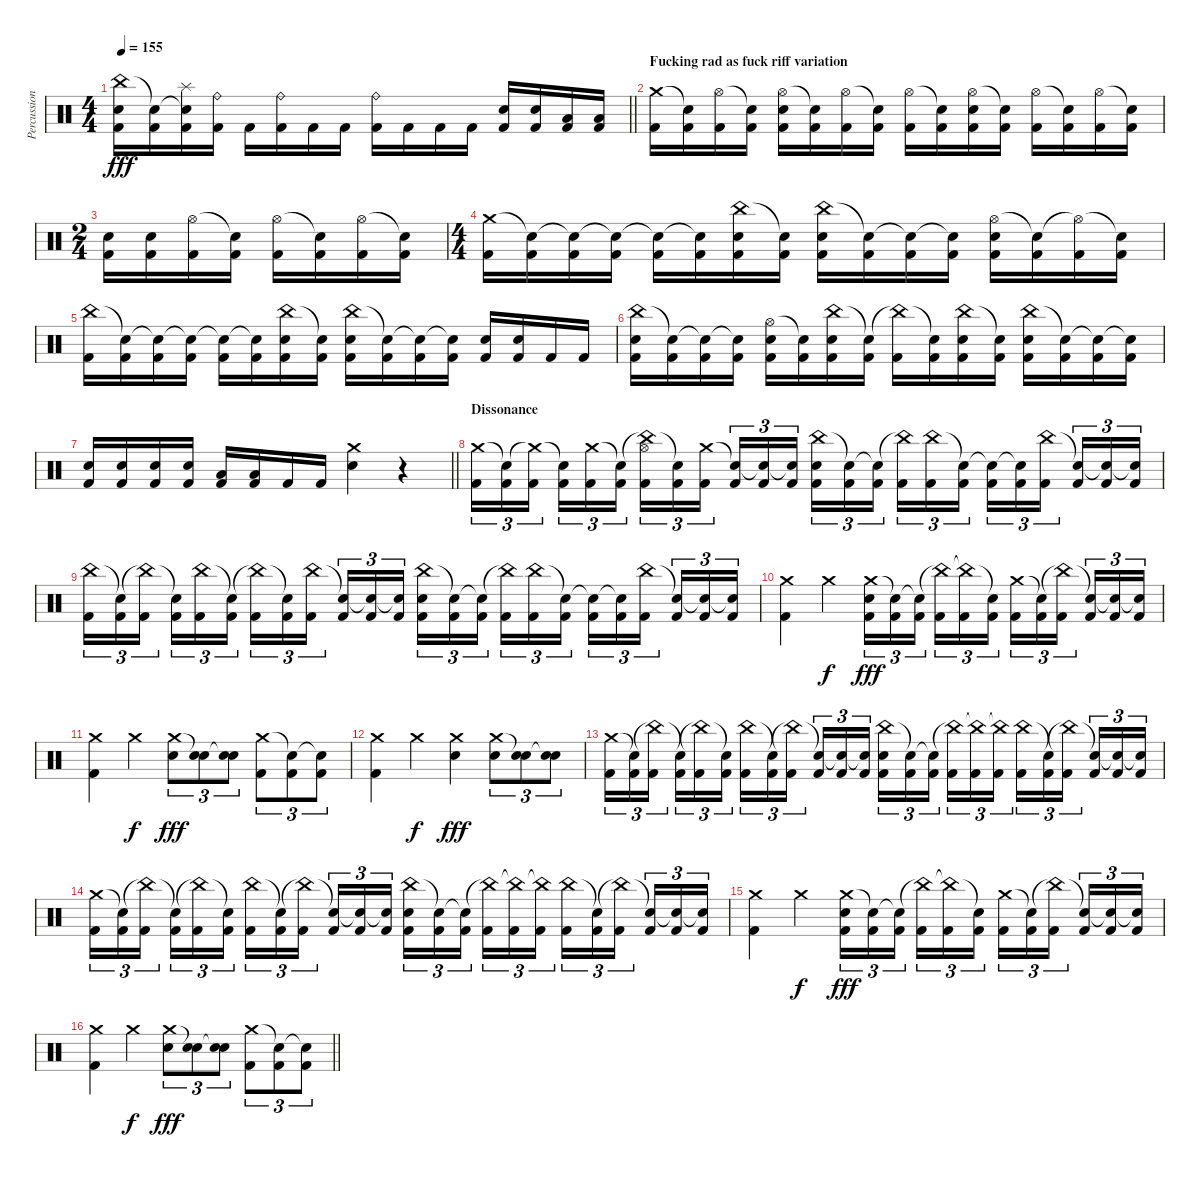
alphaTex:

\track ("Percussion" "Percussion") {instrument percussion}
\staff {score}
\articulation defaults
\ts (4 4)
\tempo 155
\clef neutral
\barLineRight lightlight
\ks c
("China (hit)" "Electric Snare (hit)" "Kick (hit) 2").16{dy fff} ("Snare (hit)"{t} "Kick (hit) 2").16 ("Snare (hit)"{t} "Splash (hit)" "Kick (hit) 2").16 ("Ride (bell)" "Kick (hit) 2").16 "Kick (hit) 2".16 ("Ride (bell)" "Kick (hit) 2").16 "Kick (hit) 2".16 "Kick (hit) 2".16 ("Ride (bell)" "Kick (hit) 2").16 "Kick (hit) 2".16 "Kick (hit) 2".16 "Kick (hit) 2".16 ("Electric Snare (hit)" "Kick (hit) 2").16 ("Electric Snare (hit)" "Kick (hit) 2").16 ("Low Tom (hit)" "Kick (hit) 2").16 ("Low Tom (hit)" "Kick (hit) 2").16 |
\section ("" "Fucking rad as fuck riff variation")
("Crash medium (hit)" "Kick (hit) 2").16 ("Snare (hit)"{t} "Kick (hit) 2").16 ("Hi-Hat (open)" "Kick (hit) 2").16 ("Snare (hit)"{t} "Kick (hit) 2").16 ("Hi-Hat (open)" "Electric Snare (hit)" "Kick (hit) 2").16 ("Snare (hit)"{t} "Kick (hit) 2").16 ("Hi-Hat (open)" "Kick (hit) 2").16 ("Snare (hit)"{t} "Kick (hit) 2").16 ("Hi-Hat (open)" "Kick (hit) 2").16 ("Snare (hit)"{t} "Kick (hit) 2").16 ("Hi-Hat (open)" "Electric Snare (hit)" "Kick (hit) 2").16 ("Snare (hit)"{t} "Kick (hit) 2").16 ("Hi-Hat (open)" "Kick (hit) 2").16 ("Snare (hit)"{t} "Kick (hit) 2").16 ("Hi-Hat (open)" "Kick (hit) 2").16 ("Snare (hit)"{t} "Kick (hit) 2").16 |
\ts (2 4)
("Electric Snare (hit)" "Kick (hit) 2").16 ("Electric Snare (hit)" "Kick (hit) 2").16 ("Hi-Hat (open)" "Kick (hit) 2").16 ("Snare (hit)"{t} "Kick (hit) 2").16 ("Hi-Hat (open)" "Kick (hit) 2").16 ("Snare (hit)"{t} "Kick (hit) 2").16 ("Hi-Hat (open)" "Kick (hit) 2").16 ("Snare (hit)"{t} "Kick (hit) 2").16 |
\ts (4 4)
("Crash medium (hit)" "Kick (hit) 2").16 ("Snare (hit)"{t} "Kick (hit) 2").16 ("Snare (hit)"{t} "Kick (hit) 2").16 ("Snare (hit)"{t} "Kick (hit) 2").16 ("Snare (hit)"{t} "Kick (hit) 2").16 ("Snare (hit)"{t} "Kick (hit) 2").16 ("China (hit)" "Electric Snare (hit)" "Kick (hit) 2").16 ("Snare (hit)"{t} "Kick (hit) 2").16 ("China (hit)" "Electric Snare (hit)" "Kick (hit) 2").16 ("Snare (hit)"{t} "Kick (hit) 2").16 ("Snare (hit)"{t} "Kick (hit) 2").16 ("Snare (hit)"{t} "Kick (hit) 2").16 ("Hi-Hat (open)" "Electric Snare (hit)" "Kick (hit) 2").16 ("Snare (hit)"{t} "Kick (hit) 2").16 ("Hi-Hat (open)"{t} "Kick (hit) 2").16 ("Snare (hit)"{t} "Kick (hit) 2").16 |
("China (hit)" "Kick (hit) 2").16 ("Snare (hit)"{t} "Kick (hit) 2").16 ("Snare (hit)"{t} "Kick (hit) 2").16 ("Snare (hit)"{t} "Kick (hit) 2").16 ("Snare (hit)"{t} "Kick (hit) 2").16 ("Snare (hit)"{t} "Kick (hit) 2").16 ("China (hit)" "Electric Snare (hit)" "Kick (hit) 2").16 ("Snare (hit)"{t} "Kick (hit) 2").16 ("China (hit)" "Electric Snare (hit)" "Kick (hit) 2").16 ("Snare (hit)"{t} "Kick (hit) 2").16 ("Snare (hit)"{t} "Kick (hit) 2").16 ("Snare (hit)"{t} "Kick (hit) 2").16 ("Electric Snare (hit)" "Kick (hit) 2").16 ("Electric Snare (hit)" "Kick (hit) 2").16 "Kick (hit) 2".16 "Kick (hit) 2".16 |
("China (hit)" "Electric Snare (hit)" "Kick (hit) 2").16 ("Snare (hit)"{t} "Kick (hit) 2").16 ("Snare (hit)"{t} "Kick (hit) 2").16 ("Snare (hit)"{t} "Kick (hit) 2").16 ("Hi-Hat (open)" "Electric Snare (hit)" "Kick (hit) 2").16 ("Snare (hit)"{t} "Kick (hit) 2").16 ("China (hit)" "Electric Snare (hit)" "Kick (hit) 2").16 ("Snare (hit)"{t} "Kick (hit) 2").16 ("China (hit)"{t} "Kick (hit) 2").16 ("Snare (hit)"{t} "Kick (hit) 2").16 ("China (hit)" "Electric Snare (hit)" "Kick (hit) 2").16 ("Snare (hit)"{t} "Kick (hit) 2").16 ("China (hit)" "Electric Snare (hit)" "Kick (hit) 2").16 ("Snare (hit)"{t} "Kick (hit) 2").16 ("Snare (hit)"{t} "Kick (hit) 2").16 ("Snare (hit)"{t} "Kick (hit) 2").16 |
\barLineRight lightlight
("Electric Snare (hit)" "Kick (hit) 2").16 ("Electric Snare (hit)" "Kick (hit) 2").16 ("Electric Snare (hit)" "Kick (hit) 2").16 ("Electric Snare (hit)" "Kick (hit) 2").16 ("Low Tom (hit)" "Kick (hit) 2").16 ("Low Tom (hit)" "Kick (hit) 2").16 "Kick (hit) 2".16 "Kick (hit) 2".16 ("Crash medium (hit)" "Electric Snare (hit)").4 r.4 |
\section ("" "Dissonance")
("Crash medium (hit)" "Kick (hit) 2").16{tu (3 2)} ("Snare (hit)"{t} "Kick (hit) 2").16{tu (3 2)} ("Crash medium (hit)"{t} "Kick (hit) 2").16{tu (3 2) beam splitsecondary} ("Snare (hit)"{t} "Kick (hit) 2").16{tu (3 2)} ("Crash medium (hit)" "Kick (hit) 2").16{tu (3 2)} ("Snare (hit)"{t} "Kick (hit) 2").16{tu (3 2)} ("China (hit)"{t} "Hi-Hat (open)" "Kick (hit) 2").16{tu (3 2)} ("Snare (hit)"{t} "Kick (hit) 2").16{tu (3 2)} ("Crash medium (hit)" "Kick (hit) 2").16{tu (3 2) beam splitsecondary} ("Snare (hit)"{t} "Kick (hit) 2").16{tu (3 2)} ("Snare (hit)"{t} "Kick (hit) 2").16{tu (3 2)} ("Snare (hit)"{t} "Kick (hit) 2").16{tu (3 2)} ("China (hit)" "Electric Snare (hit)" "Kick (hit) 2").16{tu (3 2)} ("Snare (hit)"{t} "Kick (hit) 2").16{tu (3 2)} ("Snare (hit)"{t} "Kick (hit) 2").16{tu (3 2) beam splitsecondary} ("China (hit)"{t} "Kick (hit) 2").16{tu (3 2)} ("China (hit)" "Kick (hit) 2").16{tu (3 2)} ("Snare (hit)"{t} "Kick (hit) 2").16{tu (3 2)} ("Snare (hit)"{t} "Kick (hit) 2").16{tu (3 2)} ("Snare (hit)"{t} "Kick (hit) 2").16{tu (3 2)} ("China (hit)" "Kick (hit) 2").16{tu (3 2) beam splitsecondary} ("Snare (hit)"{t} "Kick (hit) 2").16{tu (3 2)} ("Snare (hit)"{t} "Kick (hit) 2").16{tu (3 2)} ("Snare (hit)"{t} "Kick (hit) 2").16{tu (3 2)} |
("China (hit)" "Kick (hit) 2").16{tu (3 2)} ("Snare (hit)"{t} "Kick (hit) 2").16{tu (3 2)} ("China (hit)"{t} "Kick (hit) 2").16{tu (3 2) beam splitsecondary} ("Snare (hit)"{t} "Kick (hit) 2").16{tu (3 2)} ("China (hit)" "Kick (hit) 2").16{tu (3 2)} ("Snare (hit)"{t} "Kick (hit) 2").16{tu (3 2)} ("China (hit)"{t} "Kick (hit) 2").16{tu (3 2)} ("Snare (hit)"{t} "Kick (hit) 2").16{tu (3 2)} ("China (hit)" "Kick (hit) 2").16{tu (3 2) beam splitsecondary} ("Snare (hit)"{t} "Kick (hit) 2").16{tu (3 2)} ("Snare (hit)"{t} "Kick (hit) 2").16{tu (3 2)} ("Snare (hit)"{t} "Kick (hit) 2").16{tu (3 2)} ("China (hit)" "Electric Snare (hit)" "Kick (hit) 2").16{tu (3 2)} ("Snare (hit)"{t} "Kick (hit) 2").16{tu (3 2)} ("Snare (hit)"{t} "Kick (hit) 2").16{tu (3 2) beam splitsecondary} ("China (hit)"{t} "Kick (hit) 2").16{tu (3 2)} ("China (hit)" "Kick (hit) 2").16{tu (3 2)} ("Snare (hit)"{t} "Kick (hit) 2").16{tu (3 2)} ("Snare (hit)"{t} "Kick (hit) 2").16{tu (3 2)} ("Snare (hit)"{t} "Kick (hit) 2").16{tu (3 2)} ("China (hit)" "Kick (hit) 2").16{tu (3 2) beam splitsecondary} ("Snare (hit)"{t} "Kick (hit) 2").16{tu (3 2)} ("Snare (hit)"{t} "Kick (hit) 2").16{tu (3 2)} ("Snare (hit)"{t} "Kick (hit) 2").16{tu (3 2)} |
("Crash medium (hit)" "Kick (hit) 2").4 "Crash medium (hit)".4{dy f} ("Crash medium (hit)" "Electric Snare (hit)" "Kick (hit) 2").16{tu (3 2) dy fff} ("Snare (hit)"{t} "Kick (hit) 2").16{tu (3 2)} ("Snare (hit)"{t} "Kick (hit) 2").16{tu (3 2) beam splitsecondary} ("China (hit)"{t} "Kick (hit) 2").16{tu (3 2)} ("China (hit)"{t} "Kick (hit) 2").16{tu (3 2)} ("Snare (hit)"{t} "Kick (hit) 2").16{tu (3 2)} ("Crash medium (hit)" "Kick (hit) 2").16{tu (3 2)} ("Snare (hit)"{t} "Kick (hit) 2").16{tu (3 2)} ("China (hit)"{t} "Kick (hit) 2").16{tu (3 2) beam splitsecondary} ("Snare (hit)"{t} "Kick (hit) 2").16{tu (3 2)} ("Snare (hit)"{t} "Kick (hit) 2").16{tu (3 2)} ("Snare (hit)"{t} "Kick (hit) 2").16{tu (3 2)} |
("Crash medium (hit)" "Kick (hit) 2").4 "Crash medium (hit)".4{dy f} ("Crash medium (hit)" "Electric Snare (hit)").8{tu (3 2) dy fff} ("Snare (hit)"{t} "Electric Snare (hit)").8{tu (3 2)} ("Snare (hit)"{t} "Electric Snare (hit)").8{tu (3 2)} ("Crash medium (hit)" "Kick (hit) 2").8{tu (3 2)} ("Snare (hit)"{t} "Kick (hit) 2").8{tu (3 2)} ("Snare (hit)"{t} "Kick (hit) 2").8{tu (3 2)} |
("Crash medium (hit)" "Kick (hit) 2").4 "Crash medium (hit)".4{dy f} ("Crash medium (hit)" "Electric Snare (hit)").4{dy fff} ("Crash medium (hit)" "Electric Snare (hit)").8{tu (3 2)} ("Snare (hit)"{t} "Electric Snare (hit)").8{tu (3 2)} ("Snare (hit)"{t} "Electric Snare (hit)").8{tu (3 2)} |
("Crash medium (hit)" "Kick (hit) 2").16{tu (3 2)} ("Snare (hit)"{t} "Kick (hit) 2").16{tu (3 2)} ("China (hit)"{t} "Kick (hit) 2").16{tu (3 2) beam splitsecondary} ("Snare (hit)"{t} "Kick (hit) 2").16{tu (3 2)} ("China (hit)"{t} "Kick (hit) 2").16{tu (3 2)} ("Snare (hit)"{t} "Kick (hit) 2").16{tu (3 2)} ("China (hit)" "Kick (hit) 2").16{tu (3 2)} ("Snare (hit)"{t} "Kick (hit) 2").16{tu (3 2)} ("China (hit)"{t} "Kick (hit) 2").16{tu (3 2) beam splitsecondary} ("Snare (hit)"{t} "Kick (hit) 2").16{tu (3 2)} ("Snare (hit)"{t} "Kick (hit) 2").16{tu (3 2)} ("Snare (hit)"{t} "Kick (hit) 2").16{tu (3 2)} ("China (hit)" "Electric Snare (hit)" "Kick (hit) 2").16{tu (3 2)} ("Snare (hit)"{t} "Kick (hit) 2").16{tu (3 2)} ("Snare (hit)"{t} "Kick (hit) 2").16{tu (3 2) beam splitsecondary} ("China (hit)"{t} "Kick (hit) 2").16{tu (3 2)} ("China (hit)"{t} "Kick (hit) 2").16{tu (3 2)} ("China (hit)"{t} "Kick (hit) 2").16{tu (3 2)} ("China (hit)" "Kick (hit) 2").16{tu (3 2)} ("Snare (hit)"{t} "Kick (hit) 2").16{tu (3 2)} ("China (hit)"{t} "Kick (hit) 2").16{tu (3 2) beam splitsecondary} ("Snare (hit)"{t} "Kick (hit) 2").16{tu (3 2)} ("Snare (hit)"{t} "Kick (hit) 2").16{tu (3 2)} ("Snare (hit)"{t} "Kick (hit) 2").16{tu (3 2)} |
("Crash medium (hit)" "Kick (hit) 2").16{tu (3 2)} ("Snare (hit)"{t} "Kick (hit) 2").16{tu (3 2)} ("China (hit)"{t} "Kick (hit) 2").16{tu (3 2) beam splitsecondary} ("Snare (hit)"{t} "Kick (hit) 2").16{tu (3 2)} ("China (hit)"{t} "Kick (hit) 2").16{tu (3 2)} ("Snare (hit)"{t} "Kick (hit) 2").16{tu (3 2)} ("China (hit)" "Kick (hit) 2").16{tu (3 2)} ("Snare (hit)"{t} "Kick (hit) 2").16{tu (3 2)} ("China (hit)"{t} "Kick (hit) 2").16{tu (3 2) beam splitsecondary} ("Snare (hit)"{t} "Kick (hit) 2").16{tu (3 2)} ("Snare (hit)"{t} "Kick (hit) 2").16{tu (3 2)} ("Snare (hit)"{t} "Kick (hit) 2").16{tu (3 2)} ("China (hit)" "Electric Snare (hit)" "Kick (hit) 2").16{tu (3 2)} ("Snare (hit)"{t} "Kick (hit) 2").16{tu (3 2)} ("Snare (hit)"{t} "Kick (hit) 2").16{tu (3 2) beam splitsecondary} ("China (hit)"{t} "Kick (hit) 2").16{tu (3 2)} ("China (hit)"{t} "Kick (hit) 2").16{tu (3 2)} ("China (hit)"{t} "Kick (hit) 2").16{tu (3 2)} ("China (hit)" "Kick (hit) 2").16{tu (3 2)} ("Snare (hit)"{t} "Kick (hit) 2").16{tu (3 2)} ("China (hit)"{t} "Kick (hit) 2").16{tu (3 2) beam splitsecondary} ("Snare (hit)"{t} "Kick (hit) 2").16{tu (3 2)} ("Snare (hit)"{t} "Kick (hit) 2").16{tu (3 2)} ("Snare (hit)"{t} "Kick (hit) 2").16{tu (3 2)} |
("Crash medium (hit)" "Kick (hit) 2").4 "Crash medium (hit)".4{dy f} ("Crash medium (hit)" "Electric Snare (hit)" "Kick (hit) 2").16{tu (3 2) dy fff} ("Snare (hit)"{t} "Kick (hit) 2").16{tu (3 2)} ("Snare (hit)"{t} "Kick (hit) 2").16{tu (3 2) beam splitsecondary} ("China (hit)"{t} "Kick (hit) 2").16{tu (3 2)} ("China (hit)"{t} "Kick (hit) 2").16{tu (3 2)} ("Snare (hit)"{t} "Kick (hit) 2").16{tu (3 2)} ("Crash medium (hit)" "Kick (hit) 2").16{tu (3 2)} ("Snare (hit)"{t} "Kick (hit) 2").16{tu (3 2)} ("China (hit)"{t} "Kick (hit) 2").16{tu (3 2) beam splitsecondary} ("Snare (hit)"{t} "Kick (hit) 2").16{tu (3 2)} ("Snare (hit)"{t} "Kick (hit) 2").16{tu (3 2)} ("Snare (hit)"{t} "Kick (hit) 2").16{tu (3 2)} |
\barLineRight lightlight
("Crash medium (hit)" "Kick (hit) 2").4 "Crash medium (hit)".4{dy f} ("Crash medium (hit)" "Electric Snare (hit)").8{tu (3 2) dy fff} ("Snare (hit)"{t} "Electric Snare (hit)").8{tu (3 2)} ("Snare (hit)"{t} "Electric Snare (hit)").8{tu (3 2)} ("Crash medium (hit)" "Kick (hit) 2").8{tu (3 2)} ("Snare (hit)"{t} "Kick (hit) 2").8{tu (3 2)} ("Snare (hit)"{t} "Kick (hit) 2").8{tu (3 2)}
